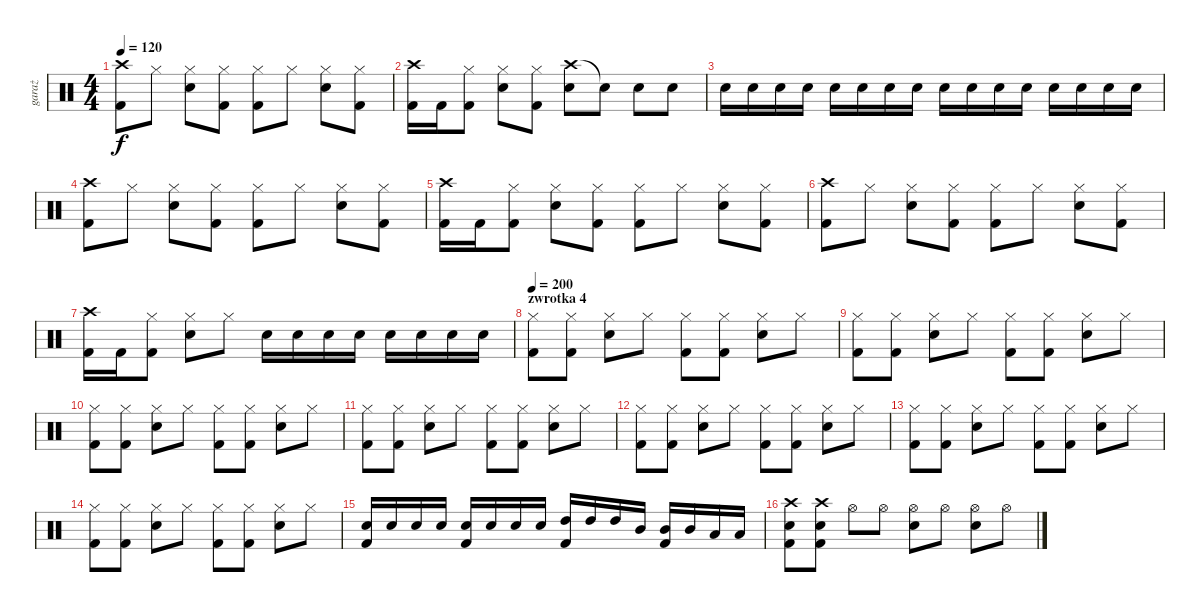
\track ("garaż" "garaż") {instrument percussion}
\staff {score}
\articulation defaults
\ts (4 4)
\tempo 120
\clef neutral
\ks c
("Crash high (hit)" "Kick (hit) 2").8{dy f} "Hi-Hat (closed)".8 ("Hi-Hat (closed)" "Snare (hit) 2").8 ("Hi-Hat (closed)" "Kick (hit) 2").8 ("Hi-Hat (closed)" "Kick (hit) 2").8 "Hi-Hat (closed)".8 ("Hi-Hat (closed)" "Snare (hit) 2").8 ("Hi-Hat (closed)" "Kick (hit) 2").8 |
("Crash high (hit)" "Kick (hit) 2").16 "Kick (hit) 2".16 ("Hi-Hat (closed)" "Kick (hit) 2").8 ("Hi-Hat (closed)" "Snare (hit) 2").8 ("Hi-Hat (closed)" "Kick (hit) 2").8 ("Crash high (hit)" "Snare (hit) 2").8 "Snare (hit)"{t}.8 "Snare (hit) 2".8 "Snare (hit) 2".8{volume 0} |
"Snare (hit) 2".16{volume 16} "Snare (hit) 2".16 "Snare (hit) 2".16 "Snare (hit) 2".16 "Snare (hit) 2".16 "Snare (hit) 2".16 "Snare (hit) 2".16 "Snare (hit) 2".16 "Snare (hit) 2".16 "Snare (hit) 2".16 "Snare (hit) 2".16 "Snare (hit) 2".16 "Snare (hit) 2".16 "Snare (hit) 2".16 "Snare (hit) 2".16 "Snare (hit) 2".16 |
("Crash high (hit)" "Kick (hit) 2").8{volume 13} "Hi-Hat (closed)".8 ("Hi-Hat (closed)" "Snare (hit) 2").8 ("Hi-Hat (closed)" "Kick (hit) 2").8 ("Hi-Hat (closed)" "Kick (hit) 2").8 "Hi-Hat (closed)".8 ("Hi-Hat (closed)" "Snare (hit) 2").8 ("Hi-Hat (closed)" "Kick (hit) 2").8 |
("Crash high (hit)" "Kick (hit) 2").16 "Kick (hit) 2".16 ("Hi-Hat (closed)" "Kick (hit) 2").8 ("Hi-Hat (closed)" "Snare (hit) 2").8 ("Hi-Hat (closed)" "Kick (hit) 2").8 ("Hi-Hat (closed)" "Kick (hit) 2").8 "Hi-Hat (closed)".8 ("Hi-Hat (closed)" "Snare (hit) 2").8 ("Hi-Hat (closed)" "Kick (hit) 2").8 |
("Crash high (hit)" "Kick (hit) 2").8 "Hi-Hat (closed)".8 ("Hi-Hat (closed)" "Snare (hit) 2").8 ("Hi-Hat (closed)" "Kick (hit) 2").8 ("Hi-Hat (closed)" "Kick (hit) 2").8 "Hi-Hat (closed)".8 ("Hi-Hat (closed)" "Snare (hit) 2").8 ("Hi-Hat (closed)" "Kick (hit) 2").8 |
("Crash high (hit)" "Kick (hit) 2").16 "Kick (hit) 2".16 ("Hi-Hat (closed)" "Kick (hit) 2").8 ("Hi-Hat (closed)" "Snare (hit) 2").8 "Hi-Hat (closed)".8 "Snare (hit) 2".16 "Snare (hit) 2".16 "Snare (hit) 2".16 "Snare (hit) 2".16 "Snare (hit) 2".16 "Snare (hit) 2".16 "Snare (hit) 2".16 "Snare (hit) 2".16 |
\section ("" "zwrotka 4")
\tempo 200
("Hi-Hat (closed)" "Kick (hit) 2").8 ("Hi-Hat (closed)" "Kick (hit) 2").8 ("Hi-Hat (closed)" "Snare (hit) 2").8 "Hi-Hat (closed)".8 ("Hi-Hat (closed)" "Kick (hit) 2").8 ("Hi-Hat (closed)" "Kick (hit) 2").8 ("Hi-Hat (closed)" "Snare (hit) 2").8 "Hi-Hat (closed)".8 |
("Hi-Hat (closed)" "Kick (hit) 2").8 ("Hi-Hat (closed)" "Kick (hit) 2").8 ("Hi-Hat (closed)" "Snare (hit) 2").8 "Hi-Hat (closed)".8 ("Hi-Hat (closed)" "Kick (hit) 2").8 ("Hi-Hat (closed)" "Kick (hit) 2").8 ("Hi-Hat (closed)" "Snare (hit) 2").8 "Hi-Hat (closed)".8 |
("Hi-Hat (closed)" "Kick (hit) 2").8 ("Hi-Hat (closed)" "Kick (hit) 2").8 ("Hi-Hat (closed)" "Snare (hit) 2").8 "Hi-Hat (closed)".8 ("Hi-Hat (closed)" "Kick (hit) 2").8 ("Hi-Hat (closed)" "Kick (hit) 2").8 ("Hi-Hat (closed)" "Snare (hit) 2").8 "Hi-Hat (closed)".8 |
("Hi-Hat (closed)" "Kick (hit) 2").8 ("Hi-Hat (closed)" "Kick (hit) 2").8 ("Hi-Hat (closed)" "Snare (hit) 2").8 "Hi-Hat (closed)".8 ("Hi-Hat (closed)" "Kick (hit) 2").8 ("Hi-Hat (closed)" "Kick (hit) 2").8 ("Hi-Hat (closed)" "Snare (hit) 2").8 "Hi-Hat (closed)".8 |
("Hi-Hat (closed)" "Kick (hit) 2").8 ("Hi-Hat (closed)" "Kick (hit) 2").8 ("Hi-Hat (closed)" "Snare (hit) 2").8 "Hi-Hat (closed)".8 ("Hi-Hat (closed)" "Kick (hit) 2").8 ("Hi-Hat (closed)" "Kick (hit) 2").8 ("Hi-Hat (closed)" "Snare (hit) 2").8 "Hi-Hat (closed)".8 |
("Hi-Hat (closed)" "Kick (hit) 2").8 ("Hi-Hat (closed)" "Kick (hit) 2").8 ("Hi-Hat (closed)" "Snare (hit) 2").8 "Hi-Hat (closed)".8 ("Hi-Hat (closed)" "Kick (hit) 2").8 ("Hi-Hat (closed)" "Kick (hit) 2").8 ("Hi-Hat (closed)" "Snare (hit) 2").8 "Hi-Hat (closed)".8 |
("Hi-Hat (closed)" "Kick (hit) 2").8 ("Hi-Hat (closed)" "Kick (hit) 2").8 ("Hi-Hat (closed)" "Snare (hit) 2").8 "Hi-Hat (closed)".8 ("Hi-Hat (closed)" "Kick (hit) 2").8 ("Hi-Hat (closed)" "Kick (hit) 2").8 ("Hi-Hat (closed)" "Snare (hit) 2").8 "Hi-Hat (closed)".8 |
("Snare (hit) 2" "Kick (hit) 2").16 "Snare (hit) 2".16 "Snare (hit) 2".16 "Snare (hit) 2".16 ("Snare (hit) 2" "Kick (hit) 2").16 "Snare (hit) 2".16 "Snare (hit) 2".16 "Snare (hit) 2".16 ("High Tom (hit)" "Kick (hit) 2").16 "High Tom (hit)".16 "High Tom (hit)".16 "Mid Tom (hit)".16 ("Mid Tom (hit)" "Kick (hit) 2").16 "Mid Tom (hit)".16 "Low Tom (hit)".16 "Low Tom (hit)".16 |
("Crash high (hit)" "Snare (hit) 2" "Kick (hit) 2").8 ("Crash high (hit)" "Snare (hit) 2" "Kick (hit) 2").8 "Hi-Hat (open)".8 "Hi-Hat (open)".8 ("Hi-Hat (open)" "Snare (hit) 2").8 "Hi-Hat (open)".8 ("Hi-Hat (open)" "Snare (hit) 2").8 "Hi-Hat (open)".8
